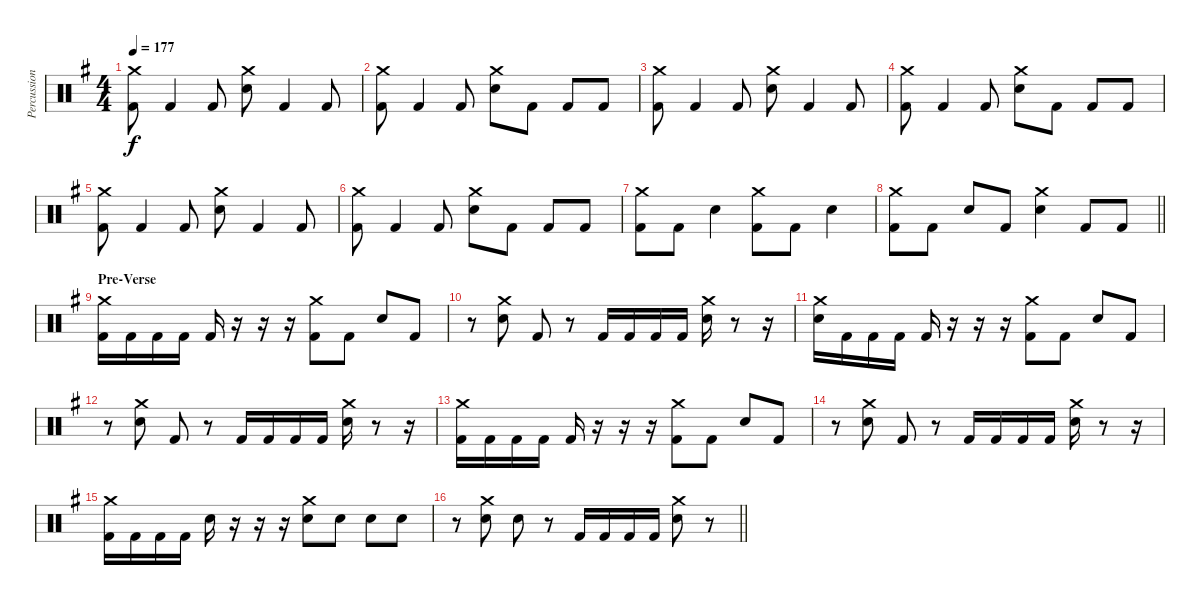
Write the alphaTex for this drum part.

\track ("Percussion" "Percussion") {instrument percussion}
\staff {score}
\articulation defaults
\ts (4 4)
\tempo 177
\clef neutral
\ks g
("Crash medium (hit)" "Kick (hit) 2").8{dy f} "Kick (hit) 2".4 "Kick (hit) 2".8 ("Crash medium (hit)" "Electric Snare (hit)").8 "Kick (hit) 2".4 "Kick (hit) 2".8 |
("Crash medium (hit)" "Kick (hit) 2").8 "Kick (hit) 2".4 "Kick (hit) 2".8 ("Crash medium (hit)" "Electric Snare (hit)").8 "Kick (hit) 2".8 "Kick (hit) 2".8 "Kick (hit) 2".8 |
("Crash medium (hit)" "Kick (hit) 2").8 "Kick (hit) 2".4 "Kick (hit) 2".8 ("Crash medium (hit)" "Electric Snare (hit)").8 "Kick (hit) 2".4 "Kick (hit) 2".8 |
("Crash medium (hit)" "Kick (hit) 2").8 "Kick (hit) 2".4 "Kick (hit) 2".8 ("Crash medium (hit)" "Electric Snare (hit)").8 "Kick (hit) 2".8 "Kick (hit) 2".8 "Kick (hit) 2".8 |
("Crash medium (hit)" "Kick (hit) 2").8 "Kick (hit) 2".4 "Kick (hit) 2".8 ("Crash medium (hit)" "Electric Snare (hit)").8 "Kick (hit) 2".4 "Kick (hit) 2".8 |
("Crash medium (hit)" "Kick (hit) 2").8 "Kick (hit) 2".4 "Kick (hit) 2".8 ("Crash medium (hit)" "Electric Snare (hit)").8 "Kick (hit) 2".8 "Kick (hit) 2".8 "Kick (hit) 2".8 |
("Crash medium (hit)" "Kick (hit) 2").8 "Kick (hit) 2".8 "Electric Snare (hit)".4 ("Crash medium (hit)" "Kick (hit) 2").8 "Kick (hit) 2".8 "Electric Snare (hit)".4 |
\barLineRight lightlight
("Crash medium (hit)" "Kick (hit) 2").8 "Kick (hit) 2".8 "Electric Snare (hit)".8 "Kick (hit) 2".8 ("Crash medium (hit)" "Electric Snare (hit)").4 "Kick (hit) 2".8 "Kick (hit) 2".8 |
\section ("" "Pre-Verse")
("Crash medium (hit)" "Kick (hit) 2").16 "Kick (hit) 2".16 "Kick (hit) 2".16 "Kick (hit) 2".16 "Kick (hit) 2".16 r.16 r.16 r.16 ("Crash medium (hit)" "Kick (hit) 2").8 "Kick (hit) 2".8 "Electric Snare (hit)".8 "Kick (hit) 2".8 |
r.8 ("Crash medium (hit)" "Electric Snare (hit)").8 "Kick (hit) 2".8 r.8 "Kick (hit) 2".16 "Kick (hit) 2".16 "Kick (hit) 2".16 "Kick (hit) 2".16 ("Crash medium (hit)" "Electric Snare (hit)").16 r.8 r.16 |
("Crash medium (hit)" "Electric Snare (hit)").16 "Kick (hit) 2".16 "Kick (hit) 2".16 "Kick (hit) 2".16 "Kick (hit) 2".16 r.16 r.16 r.16 ("Crash medium (hit)" "Kick (hit) 2").8 "Kick (hit) 2".8 "Electric Snare (hit)".8 "Kick (hit) 2".8 |
r.8 ("Crash medium (hit)" "Electric Snare (hit)").8 "Kick (hit) 2".8 r.8 "Kick (hit) 2".16 "Kick (hit) 2".16 "Kick (hit) 2".16 "Kick (hit) 2".16 ("Crash medium (hit)" "Electric Snare (hit)").16 r.8 r.16 |
("Crash medium (hit)" "Kick (hit) 2").16 "Kick (hit) 2".16 "Kick (hit) 2".16 "Kick (hit) 2".16 "Kick (hit) 2".16 r.16 r.16 r.16 ("Crash medium (hit)" "Kick (hit) 2").8 "Kick (hit) 2".8 "Electric Snare (hit)".8 "Kick (hit) 2".8 |
r.8 ("Crash medium (hit)" "Electric Snare (hit)").8 "Kick (hit) 2".8 r.8 "Kick (hit) 2".16 "Kick (hit) 2".16 "Kick (hit) 2".16 "Kick (hit) 2".16 ("Crash medium (hit)" "Electric Snare (hit)").16 r.8 r.16 |
("Crash medium (hit)" "Kick (hit) 2").16 "Kick (hit) 2".16 "Kick (hit) 2".16 "Kick (hit) 2".16 "Electric Snare (hit)".16 r.16 r.16 r.16 ("Crash medium (hit)" "Electric Snare (hit)").8 "Electric Snare (hit)".8 "Electric Snare (hit)".8 "Electric Snare (hit)".8 |
\barLineRight lightlight
r.8 ("Crash medium (hit)" "Electric Snare (hit)").8 "Electric Snare (hit)".8 r.8 "Kick (hit) 2".16 "Kick (hit) 2".16 "Kick (hit) 2".16 "Kick (hit) 2".16 ("Crash medium (hit)" "Electric Snare (hit)").8 r.8
